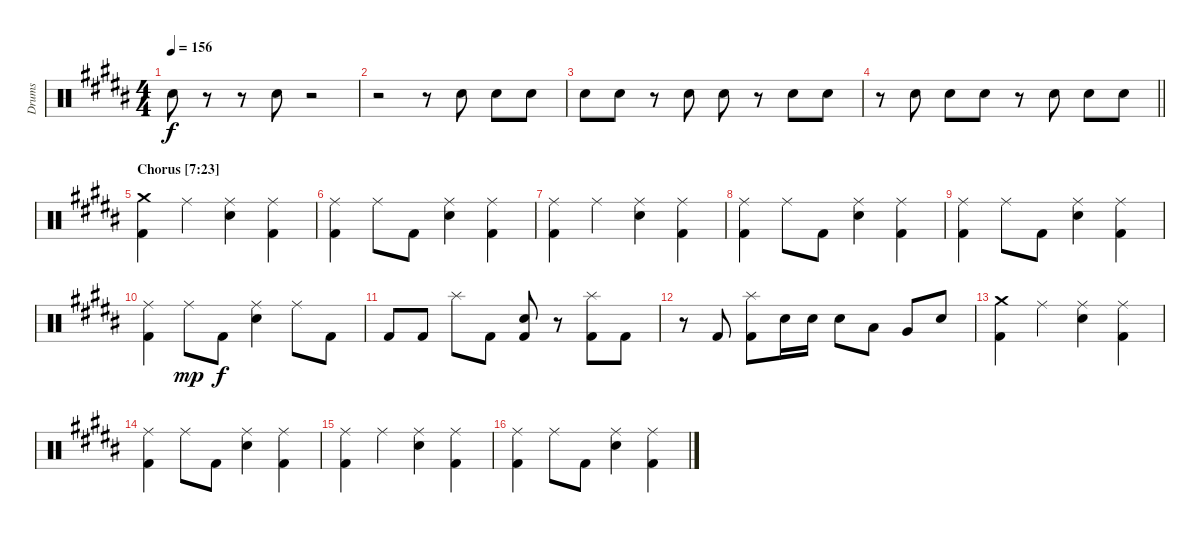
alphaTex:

\track ("Drums" "Drums") {instrument percussion}
\staff {score}
\articulation defaults
\ts (4 4)
\tempo 156
\clef neutral
\ks g#minor "Snare (hit) 2".8{dy f}
r.8 r.8 "Snare (hit) 2".8 r.2 |
r.2 r.8 "Snare (hit) 2".8 "Snare (hit) 2".8 "Snare (hit) 2".8 |
"Snare (hit) 2".8 "Snare (hit) 2".8 r.8 "Snare (hit) 2".8 "Snare (hit) 2".8 r.8 "Snare (hit) 2".8 "Snare (hit) 2".8 |
\barLineRight lightlight
r.8 "Snare (hit) 2".8 "Snare (hit) 2".8 "Snare (hit) 2".8 r.8 "Snare (hit) 2".8 "Snare (hit) 2".8 "Snare (hit) 2".8 |
\section ("" "Chorus [7:23]")
("Crash medium (hit)" "Kick (hit) 2").4 "Ride (middle)".4 ("Ride (middle)" "Snare (hit) 2").4 ("Ride (middle)" "Kick (hit) 2").4 |
("Ride (middle)" "Kick (hit) 2").4 "Ride (middle)".8 "Kick (hit) 2".8 ("Ride (middle)" "Snare (hit) 2").4 ("Ride (middle)" "Kick (hit) 2").4 |
("Ride (middle)" "Kick (hit) 2").4 "Ride (middle)".4 ("Ride (middle)" "Snare (hit) 2").4 ("Ride (middle)" "Kick (hit) 2").4 |
("Ride (middle)" "Kick (hit) 2").4 "Ride (middle)".8 "Kick (hit) 2".8 ("Ride (middle)" "Snare (hit) 2").4 ("Ride (middle)" "Kick (hit) 2").4 |
("Ride (middle)" "Kick (hit) 2").4 "Ride (middle)".8 "Kick (hit) 2".8 ("Ride (middle)" "Snare (hit) 2").4 ("Ride (middle)" "Kick (hit) 2").4 |
("Ride (middle)" "Kick (hit) 2").4 "Ride (middle)".8{dy mp} "Kick (hit) 2".8{dy f} ("Ride (middle)" "Snare (hit) 2").4 "Ride (middle)".8 "Kick (hit) 2".8 |
"Kick (hit) 2".8 "Kick (hit) 2".8 "Splash (hit)".8 "Kick (hit) 2".8 ("Snare (hit) 2" "Kick (hit) 2").8 r.8 ("Splash (hit)" "Kick (hit) 2").8 "Kick (hit) 2".8 |
r.8 "Kick (hit) 2".8 ("Splash (hit)" "Kick (hit) 2").8 "Snare (hit) 2".16 "Snare (hit) 2".16 "Snare (hit) 2".8 "Low Tom (hit)".8 "Very Low Tom (hit)".8 "Snare (hit) 2".8 |
("Crash medium (hit)" "Kick (hit) 2").4 "Ride (middle)".4 ("Ride (middle)" "Snare (hit) 2").4 ("Ride (middle)" "Kick (hit) 2").4 |
("Ride (middle)" "Kick (hit) 2").4 "Ride (middle)".8 "Kick (hit) 2".8 ("Ride (middle)" "Snare (hit) 2").4 ("Ride (middle)" "Kick (hit) 2").4 |
("Ride (middle)" "Kick (hit) 2").4 "Ride (middle)".4 ("Ride (middle)" "Snare (hit) 2").4 ("Ride (middle)" "Kick (hit) 2").4 |
("Ride (middle)" "Kick (hit) 2").4 "Ride (middle)".8 "Kick (hit) 2".8 ("Ride (middle)" "Snare (hit) 2").4 ("Ride (middle)" "Kick (hit) 2").4
